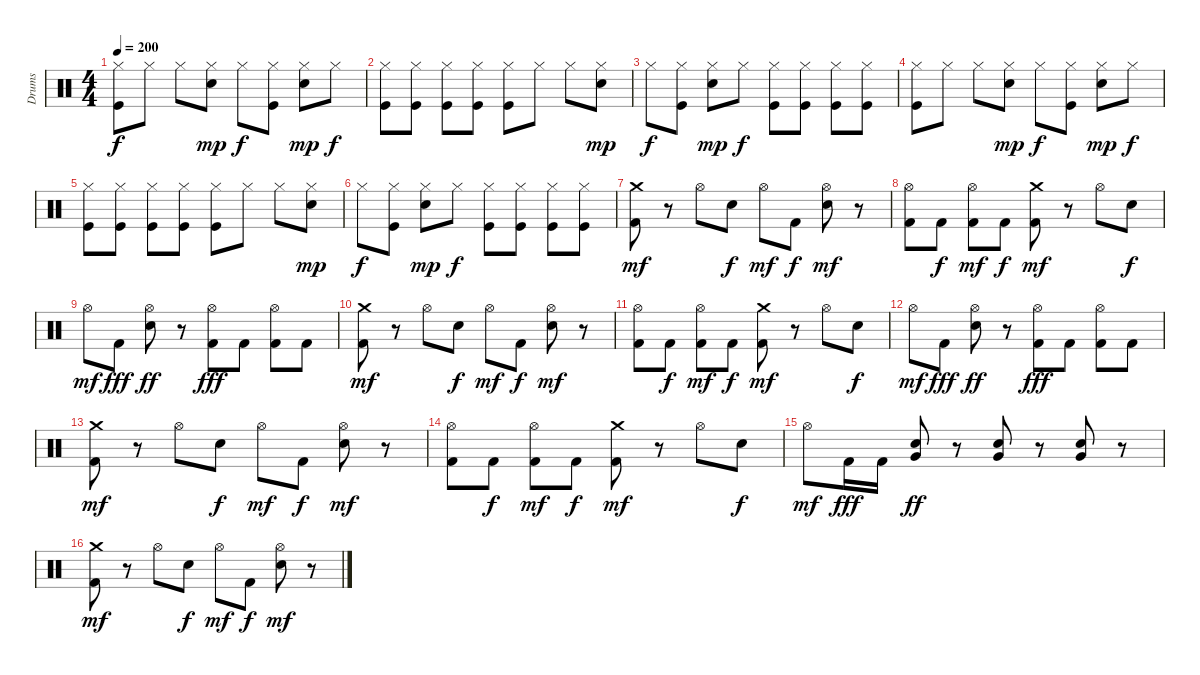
\track ("Drums" "Drums") {instrument percussion}
\staff {score}
\articulation defaults
\ts (4 4)
\tempo 200
\clef neutral
\ks c
("Hi-Hat (closed)" "Kick (hit)").8{dy f} "Hi-Hat (closed)".8 "Hi-Hat (closed)".8 ("Hi-Hat (closed)" "Electric Snare (hit)").8{dy mp} "Hi-Hat (closed)".8{dy f} ("Hi-Hat (closed)" "Kick (hit)").8 ("Hi-Hat (closed)" "Electric Snare (hit)").8{dy mp} "Hi-Hat (closed)".8{dy f} |
("Hi-Hat (closed)" "Kick (hit)").8 ("Hi-Hat (closed)" "Kick (hit)").8 ("Hi-Hat (closed)" "Kick (hit)").8 ("Hi-Hat (closed)" "Kick (hit)").8 ("Hi-Hat (closed)" "Kick (hit)").8 "Hi-Hat (closed)".8 "Hi-Hat (closed)".8 ("Hi-Hat (closed)" "Electric Snare (hit)").8{dy mp} |
"Hi-Hat (closed)".8{dy f} ("Hi-Hat (closed)" "Kick (hit)").8 ("Hi-Hat (closed)" "Electric Snare (hit)").8{dy mp} "Hi-Hat (closed)".8{dy f} ("Hi-Hat (closed)" "Kick (hit)").8 ("Hi-Hat (closed)" "Kick (hit)").8 ("Hi-Hat (closed)" "Kick (hit)").8 ("Hi-Hat (closed)" "Kick (hit)").8 |
("Hi-Hat (closed)" "Kick (hit)").8 "Hi-Hat (closed)".8 "Hi-Hat (closed)".8 ("Hi-Hat (closed)" "Electric Snare (hit)").8{dy mp} "Hi-Hat (closed)".8{dy f} ("Hi-Hat (closed)" "Kick (hit)").8 ("Hi-Hat (closed)" "Electric Snare (hit)").8{dy mp} "Hi-Hat (closed)".8{dy f} |
("Hi-Hat (closed)" "Kick (hit)").8 ("Hi-Hat (closed)" "Kick (hit)").8 ("Hi-Hat (closed)" "Kick (hit)").8 ("Hi-Hat (closed)" "Kick (hit)").8 ("Hi-Hat (closed)" "Kick (hit)").8 "Hi-Hat (closed)".8 "Hi-Hat (closed)".8 ("Hi-Hat (closed)" "Electric Snare (hit)").8{dy mp} |
"Hi-Hat (closed)".8{dy f} ("Hi-Hat (closed)" "Kick (hit)").8 ("Hi-Hat (closed)" "Electric Snare (hit)").8{dy mp} "Hi-Hat (closed)".8{dy f} ("Hi-Hat (closed)" "Kick (hit)").8 ("Hi-Hat (closed)" "Kick (hit)").8 ("Hi-Hat (closed)" "Kick (hit)").8 ("Hi-Hat (closed)" "Kick (hit)").8 |
("Crash medium (hit)" "Kick (hit) 2").8{dy mf} r.8 "Hi-Hat (open)".8 "Electric Snare (hit)".8{dy f} "Hi-Hat (open)".8{dy mf} "Kick (hit) 2".8{dy f} ("Hi-Hat (open)" "Electric Snare (hit)").8{dy mf} r.8 |
("Hi-Hat (open)" "Kick (hit) 2").8 "Kick (hit) 2".8{dy f} ("Hi-Hat (open)" "Kick (hit) 2").8{dy mf} "Kick (hit) 2".8{dy f} ("Crash medium (hit)" "Kick (hit) 2").8{dy mf} r.8 "Hi-Hat (open)".8 "Electric Snare (hit)".8{dy f} |
"Hi-Hat (open)".8{dy mf} "Kick (hit) 2".8{dy fff} ("Hi-Hat (open)" "Electric Snare (hit)").8{dy ff} r.8 ("Hi-Hat (open)" "Kick (hit) 2").8{dy fff} "Kick (hit) 2".8 ("Hi-Hat (open)" "Kick (hit) 2").8 "Kick (hit) 2".8 |
("Crash medium (hit)" "Kick (hit) 2").8{dy mf} r.8 "Hi-Hat (open)".8 "Electric Snare (hit)".8{dy f} "Hi-Hat (open)".8{dy mf} "Kick (hit) 2".8{dy f} ("Hi-Hat (open)" "Electric Snare (hit)").8{dy mf} r.8 |
("Hi-Hat (open)" "Kick (hit) 2").8 "Kick (hit) 2".8{dy f} ("Hi-Hat (open)" "Kick (hit) 2").8{dy mf} "Kick (hit) 2".8{dy f} ("Crash medium (hit)" "Kick (hit) 2").8{dy mf} r.8 "Hi-Hat (open)".8 "Electric Snare (hit)".8{dy f} |
"Hi-Hat (open)".8{dy mf} "Kick (hit) 2".8{dy fff} ("Hi-Hat (open)" "Electric Snare (hit)").8{dy ff} r.8 ("Hi-Hat (open)" "Kick (hit) 2").8{dy fff} "Kick (hit) 2".8 ("Hi-Hat (open)" "Kick (hit) 2").8 "Kick (hit) 2".8 |
("Crash medium (hit)" "Kick (hit) 2").8{dy mf} r.8 "Hi-Hat (open)".8 "Electric Snare (hit)".8{dy f} "Hi-Hat (open)".8{dy mf} "Kick (hit) 2".8{dy f} ("Hi-Hat (open)" "Electric Snare (hit)").8{dy mf} r.8 |
("Hi-Hat (open)" "Kick (hit) 2").8 "Kick (hit) 2".8{dy f} ("Hi-Hat (open)" "Kick (hit) 2").8{dy mf} "Kick (hit) 2".8{dy f} ("Crash medium (hit)" "Kick (hit) 2").8{dy mf} r.8 "Hi-Hat (open)".8 "Electric Snare (hit)".8{dy f} |
"Hi-Hat (open)".8{dy mf} "Kick (hit) 2".16{dy fff} "Kick (hit) 2".16 ("Very Low Tom (hit)" "Electric Snare (hit)").8{dy ff} r.8 ("Very Low Tom (hit)" "Electric Snare (hit)").8 r.8 ("Very Low Tom (hit)" "Electric Snare (hit)").8 r.8 |
("Crash medium (hit)" "Kick (hit) 2").8{dy mf} r.8 "Hi-Hat (open)".8 "Electric Snare (hit)".8{dy f} "Hi-Hat (open)".8{dy mf} "Kick (hit) 2".8{dy f} ("Hi-Hat (open)" "Electric Snare (hit)").8{dy mf} r.8
